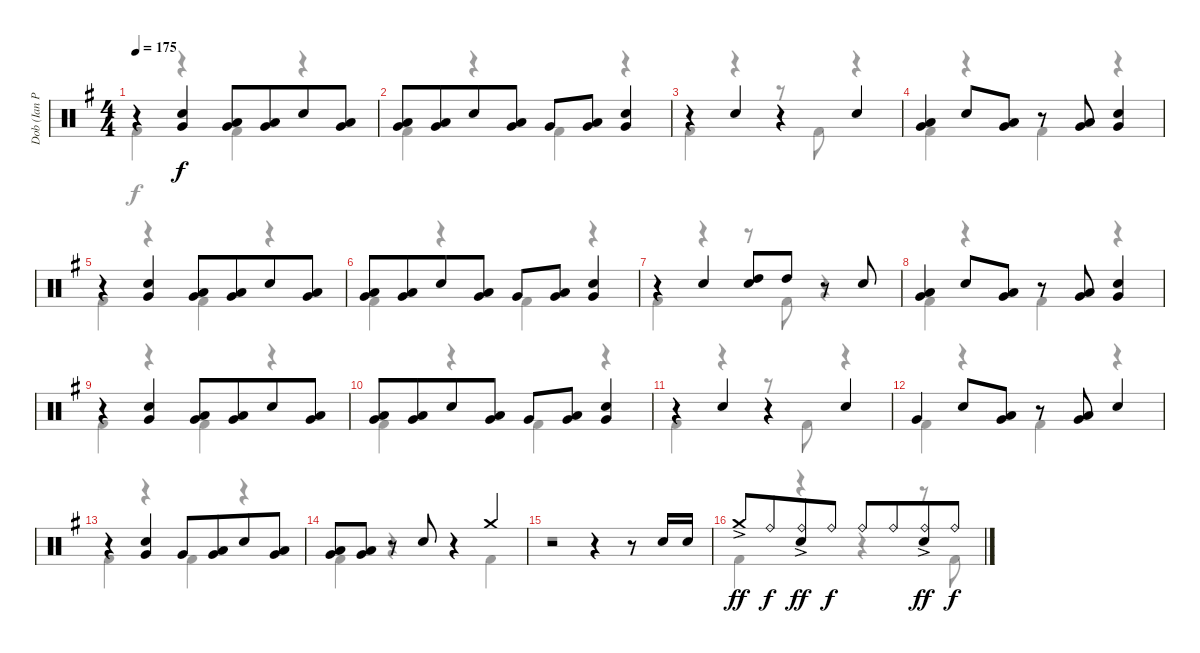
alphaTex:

\track ("Dob (Ian Paice)" "Dob (Ian P") {instrument percussion}
\staff {score}
\articulation defaults
\voice
\ts (4 4)
\tempo 175
\clef neutral
\ks g
r.4{dy f} ("Electric Snare (hit)" "Very Low Tom (hit)").4 ("Low Tom (hit)" "Very Low Tom (hit)").8 ("Low Tom (hit)" "Very Low Tom (hit)").8{beam merge} "Electric Snare (hit)".8 ("Low Tom (hit)" "Very Low Tom (hit)").8 |
("Low Tom (hit)" "Very Low Tom (hit)").8 ("Low Tom (hit)" "Very Low Tom (hit)").8{beam merge} "Electric Snare (hit)".8 ("Low Tom (hit)" "Very Low Tom (hit)").8 "Very Low Tom (hit)".8 ("Low Tom (hit)" "Very Low Tom (hit)").8 ("Electric Snare (hit)" "Very Low Tom (hit)").4 |
r.4 "Electric Snare (hit)".4 r.4 "Electric Snare (hit)".4 |
("Low Tom (hit)" "Very Low Tom (hit)").4 "Electric Snare (hit)".8 ("Low Tom (hit)" "Very Low Tom (hit)").8 r.8 ("Low Tom (hit)" "Very Low Tom (hit)").8 ("Electric Snare (hit)" "Very Low Tom (hit)").4 |
r.4 ("Electric Snare (hit)" "Very Low Tom (hit)").4 ("Low Tom (hit)" "Very Low Tom (hit)").8 ("Low Tom (hit)" "Very Low Tom (hit)").8{beam merge} "Electric Snare (hit)".8 ("Low Tom (hit)" "Very Low Tom (hit)").8 |
("Low Tom (hit)" "Very Low Tom (hit)").8 ("Low Tom (hit)" "Very Low Tom (hit)").8{beam merge} "Electric Snare (hit)".8 ("Low Tom (hit)" "Very Low Tom (hit)").8 "Very Low Tom (hit)".8 ("Low Tom (hit)" "Very Low Tom (hit)").8 ("Electric Snare (hit)" "Very Low Tom (hit)").4 |
r.4 "Electric Snare (hit)".4 ("High Tom (hit)" "Electric Snare (hit)").8 "High Tom (hit)".8 r.8 "Electric Snare (hit)".8 |
("Low Tom (hit)" "Very Low Tom (hit)").4 "Electric Snare (hit)".8 ("Low Tom (hit)" "Very Low Tom (hit)").8 r.8 ("Low Tom (hit)" "Very Low Tom (hit)").8 ("Electric Snare (hit)" "Very Low Tom (hit)").4 |
r.4 ("Electric Snare (hit)" "Very Low Tom (hit)").4 ("Low Tom (hit)" "Very Low Tom (hit)").8 ("Low Tom (hit)" "Very Low Tom (hit)").8{beam merge} "Electric Snare (hit)".8 ("Low Tom (hit)" "Very Low Tom (hit)").8 |
("Low Tom (hit)" "Very Low Tom (hit)").8 ("Low Tom (hit)" "Very Low Tom (hit)").8{beam merge} "Electric Snare (hit)".8 ("Low Tom (hit)" "Very Low Tom (hit)").8 "Very Low Tom (hit)".8 ("Low Tom (hit)" "Very Low Tom (hit)").8 ("Electric Snare (hit)" "Very Low Tom (hit)").4 |
r.4 "Electric Snare (hit)".4 r.4 "Electric Snare (hit)".4 |
"Very Low Tom (hit)".4 "Electric Snare (hit)".8 ("Low Tom (hit)" "Very Low Tom (hit)").8 r.8 ("Low Tom (hit)" "Very Low Tom (hit)").8 "Electric Snare (hit)".4 |
r.4 ("Electric Snare (hit)" "Very Low Tom (hit)").4 "Very Low Tom (hit)".8 ("Low Tom (hit)" "Very Low Tom (hit)").8{beam merge} "Electric Snare (hit)".8 ("Low Tom (hit)" "Very Low Tom (hit)").8 |
("Low Tom (hit)" "Very Low Tom (hit)").8 ("Low Tom (hit)" "Very Low Tom (hit)").8 r.8 "Electric Snare (hit)".8 r.4 "Crash medium (hit)".4 |
r.2 r.4 r.8 "Electric Snare (hit)".16 "Electric Snare (hit)".16 |
"Crash medium (hit)"{ac}.8{dy ff volume 6} "Ride (bell)".8{dy f beam merge} ("Ride (bell)" "Electric Snare (hit)"{ac}).8{dy ff} "Ride (bell)".8{dy f} "Ride (bell)".8 "Ride (bell)".8{beam merge} ("Ride (bell)" "Electric Snare (hit)"{ac}).8{dy ff} "Ride (bell)".8{dy f}
\voice
\clef neutral
\ottava regular
\simile none
\ks g "Kick (hit) 2".4{dy f}
r.4 "Kick (hit) 2".4 r.4 |
"Kick (hit) 2".4 r.4 "Kick (hit) 2".4 r.4 |
"Kick (hit) 2".4 r.4 r.8 "Kick (hit) 2".8 r.4 |
"Kick (hit) 2".4 r.4 "Kick (hit) 2".4 r.4 |
"Kick (hit) 2".4 r.4 "Kick (hit) 2".4 r.4 |
"Kick (hit) 2".4 r.4 "Kick (hit) 2".4 r.4 |
"Kick (hit) 2".4 r.4 r.8 "Kick (hit) 2".8 r.4 |
"Kick (hit) 2".4 r.4 "Kick (hit) 2".4 r.4 |
"Kick (hit) 2".4 r.4 "Kick (hit) 2".4 r.4 |
"Kick (hit) 2".4 r.4 "Kick (hit) 2".4 r.4 |
"Kick (hit) 2".4 r.4 r.8 "Kick (hit) 2".8 r.4 |
"Kick (hit) 2".4 r.4 "Kick (hit) 2".4 r.4 |
"Kick (hit) 2".4 r.4 "Kick (hit) 2".4 r.4 |
"Kick (hit) 2".4 r.4 r.4 "Kick (hit) 2".4 |
r.1 |
"Kick (hit) 2".4 r.4 r.4 r.8 "Kick (hit) 2".8
